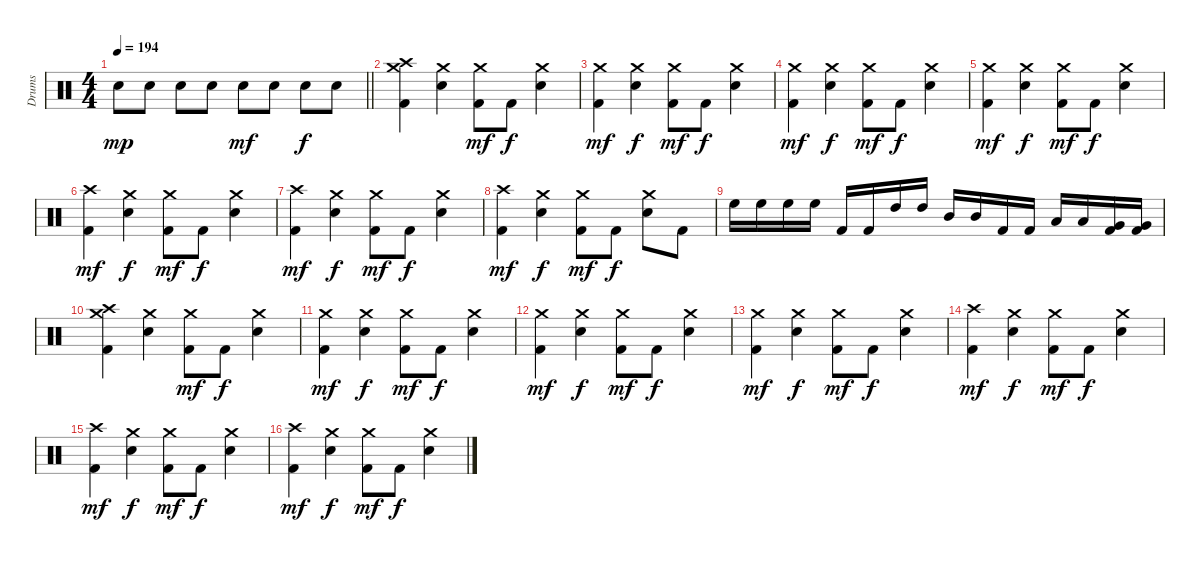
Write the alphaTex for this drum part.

\track ("Drums" "Drums") {instrument percussion}
\staff {score}
\articulation defaults
\ts (4 4)
\tempo 194
\clef neutral
\barLineRight lightlight
\ks c "Electric Snare (hit)".8{dy mp} "Electric Snare (hit)".8 "Electric Snare (hit)".8 "Electric Snare (hit)".8 "Electric Snare (hit)".8{dy mf} "Electric Snare (hit)".8 "Electric Snare (hit)".8{dy f} "Electric Snare (hit)".8
|
("Crash high (hit)" "Crash medium (hit)" "Kick (hit) 2").4 ("Crash medium (hit)" "Electric Snare (hit)").4 ("Crash medium (hit)" "Kick (hit) 2").8{dy mf} "Kick (hit) 2".8{dy f} ("Crash medium (hit)" "Electric Snare (hit)").4 |
("Crash medium (hit)" "Kick (hit) 2").4{dy mf} ("Crash medium (hit)" "Electric Snare (hit)").4{dy f} ("Crash medium (hit)" "Kick (hit) 2").8{dy mf} "Kick (hit) 2".8{dy f} ("Crash medium (hit)" "Electric Snare (hit)").4 |
("Crash medium (hit)" "Kick (hit) 2").4{dy mf} ("Crash medium (hit)" "Electric Snare (hit)").4{dy f} ("Crash medium (hit)" "Kick (hit) 2").8{dy mf} "Kick (hit) 2".8{dy f} ("Crash medium (hit)" "Electric Snare (hit)").4 |
("Crash medium (hit)" "Kick (hit) 2").4{dy mf} ("Crash medium (hit)" "Electric Snare (hit)").4{dy f} ("Crash medium (hit)" "Kick (hit) 2").8{dy mf} "Kick (hit) 2".8{dy f} ("Crash medium (hit)" "Electric Snare (hit)").4 |
("Crash high (hit)" "Kick (hit) 2").4{dy mf} ("Crash medium (hit)" "Electric Snare (hit)").4{dy f} ("Crash medium (hit)" "Kick (hit) 2").8{dy mf} "Kick (hit) 2".8{dy f} ("Crash medium (hit)" "Electric Snare (hit)").4 |
("Crash high (hit)" "Kick (hit) 2").4{dy mf} ("Crash medium (hit)" "Electric Snare (hit)").4{dy f} ("Crash medium (hit)" "Kick (hit) 2").8{dy mf} "Kick (hit) 2".8{dy f} ("Crash medium (hit)" "Electric Snare (hit)").4 |
("Crash high (hit)" "Kick (hit) 2").4{dy mf} ("Crash medium (hit)" "Electric Snare (hit)").4{dy f} ("Crash medium (hit)" "Kick (hit) 2").8{dy mf} "Kick (hit) 2".8{dy f} ("Crash medium (hit)" "Electric Snare (hit)").8 "Kick (hit) 2".8 |
"High Floor Tom (hit)".16 "High Floor Tom (hit)".16 "High Floor Tom (hit)".16 "High Floor Tom (hit)".16 "Kick (hit) 2".16 "Kick (hit) 2".16 "High Tom (hit)".16 "High Tom (hit)".16 "Mid Tom (hit)".16 "Mid Tom (hit)".16 "Kick (hit) 2".16 "Kick (hit) 2".16 "Low Tom (hit)".16 "Low Tom (hit)".16 ("Very Low Tom (hit)" "Kick (hit) 2").16 ("Very Low Tom (hit)" "Kick (hit) 2").16 |
("Crash high (hit)" "Crash medium (hit)" "Kick (hit) 2").4 ("Crash medium (hit)" "Electric Snare (hit)").4 ("Crash medium (hit)" "Kick (hit) 2").8{dy mf} "Kick (hit) 2".8{dy f} ("Crash medium (hit)" "Electric Snare (hit)").4 |
("Crash medium (hit)" "Kick (hit) 2").4{dy mf} ("Crash medium (hit)" "Electric Snare (hit)").4{dy f} ("Crash medium (hit)" "Kick (hit) 2").8{dy mf} "Kick (hit) 2".8{dy f} ("Crash medium (hit)" "Electric Snare (hit)").4 |
("Crash medium (hit)" "Kick (hit) 2").4{dy mf} ("Crash medium (hit)" "Electric Snare (hit)").4{dy f} ("Crash medium (hit)" "Kick (hit) 2").8{dy mf} "Kick (hit) 2".8{dy f} ("Crash medium (hit)" "Electric Snare (hit)").4 |
("Crash medium (hit)" "Kick (hit) 2").4{dy mf} ("Crash medium (hit)" "Electric Snare (hit)").4{dy f} ("Crash medium (hit)" "Kick (hit) 2").8{dy mf} "Kick (hit) 2".8{dy f} ("Crash medium (hit)" "Electric Snare (hit)").4 |
("Crash high (hit)" "Kick (hit) 2").4{dy mf} ("Crash medium (hit)" "Electric Snare (hit)").4{dy f} ("Crash medium (hit)" "Kick (hit) 2").8{dy mf} "Kick (hit) 2".8{dy f} ("Crash medium (hit)" "Electric Snare (hit)").4 |
("Crash high (hit)" "Kick (hit) 2").4{dy mf} ("Crash medium (hit)" "Electric Snare (hit)").4{dy f} ("Crash medium (hit)" "Kick (hit) 2").8{dy mf} "Kick (hit) 2".8{dy f} ("Crash medium (hit)" "Electric Snare (hit)").4 |
("Crash high (hit)" "Kick (hit) 2").4{dy mf} ("Crash medium (hit)" "Electric Snare (hit)").4{dy f} ("Crash medium (hit)" "Kick (hit) 2").8{dy mf} "Kick (hit) 2".8{dy f} ("Crash medium (hit)" "Electric Snare (hit)").4
